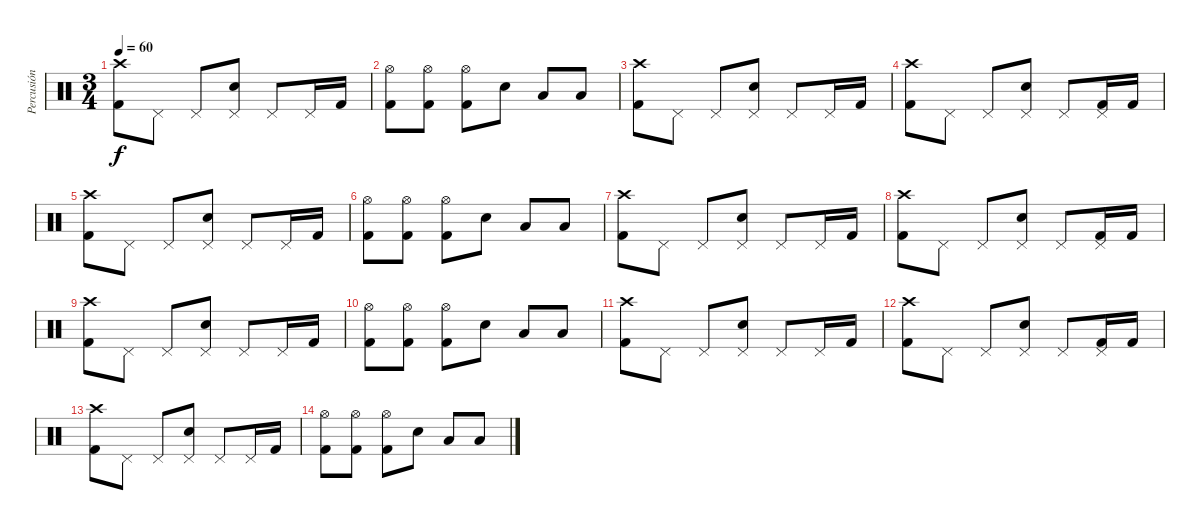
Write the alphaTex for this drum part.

\track ("Percusión" "Percusión") {instrument percussion}
\staff {score}
\articulation defaults
\ts (3 4)
\tempo 60
\clef neutral
\ks c
("Kick (hit) 2" "Crash high (hit)").8{dy f} "Pedal Hi-Hat (hit)".8 "Pedal Hi-Hat (hit)".8 ("Pedal Hi-Hat (hit)" "Snare (hit) 2").8 "Pedal Hi-Hat (hit)".8 "Pedal Hi-Hat (hit)".16 "Kick (hit) 2".16 |
("Hi-Hat (open)" "Kick (hit) 2").8 ("Hi-Hat (open)" "Kick (hit) 2").8 ("Hi-Hat (open)" "Kick (hit) 2").8 "Snare (hit) 2".8 "Low Tom (hit)".8 "Low Tom (hit)".8 |
("Kick (hit) 2" "Crash high (hit)").8 "Pedal Hi-Hat (hit)".8 "Pedal Hi-Hat (hit)".8 ("Pedal Hi-Hat (hit)" "Snare (hit) 2").8 "Pedal Hi-Hat (hit)".8 "Pedal Hi-Hat (hit)".16 "Kick (hit) 2".16 |
("Crash high (hit)" "Kick (hit) 2").8 "Pedal Hi-Hat (hit)".8 "Pedal Hi-Hat (hit)".8 ("Pedal Hi-Hat (hit)" "Snare (hit) 2").8 "Pedal Hi-Hat (hit)".8 ("Pedal Hi-Hat (hit)" "Kick (hit) 2").16 "Kick (hit) 2".16 |
("Kick (hit) 2" "Crash high (hit)").8 "Pedal Hi-Hat (hit)".8 "Pedal Hi-Hat (hit)".8 ("Pedal Hi-Hat (hit)" "Snare (hit) 2").8 "Pedal Hi-Hat (hit)".8 "Pedal Hi-Hat (hit)".16 "Kick (hit) 2".16 |
("Hi-Hat (open)" "Kick (hit) 2").8 ("Hi-Hat (open)" "Kick (hit) 2").8 ("Hi-Hat (open)" "Kick (hit) 2").8 "Snare (hit) 2".8 "Low Tom (hit)".8 "Low Tom (hit)".8 |
("Kick (hit) 2" "Crash high (hit)").8 "Pedal Hi-Hat (hit)".8 "Pedal Hi-Hat (hit)".8 ("Pedal Hi-Hat (hit)" "Snare (hit) 2").8 "Pedal Hi-Hat (hit)".8 "Pedal Hi-Hat (hit)".16 "Kick (hit) 2".16 |
("Crash high (hit)" "Kick (hit) 2").8 "Pedal Hi-Hat (hit)".8 "Pedal Hi-Hat (hit)".8 ("Pedal Hi-Hat (hit)" "Snare (hit) 2").8 "Pedal Hi-Hat (hit)".8 ("Pedal Hi-Hat (hit)" "Kick (hit) 2").16 "Kick (hit) 2".16 |
("Kick (hit) 2" "Crash high (hit)").8 "Pedal Hi-Hat (hit)".8 "Pedal Hi-Hat (hit)".8 ("Pedal Hi-Hat (hit)" "Snare (hit) 2").8 "Pedal Hi-Hat (hit)".8 "Pedal Hi-Hat (hit)".16 "Kick (hit) 2".16 |
("Hi-Hat (open)" "Kick (hit) 2").8 ("Hi-Hat (open)" "Kick (hit) 2").8 ("Hi-Hat (open)" "Kick (hit) 2").8 "Snare (hit) 2".8 "Low Tom (hit)".8 "Low Tom (hit)".8 |
("Kick (hit) 2" "Crash high (hit)").8 "Pedal Hi-Hat (hit)".8 "Pedal Hi-Hat (hit)".8 ("Pedal Hi-Hat (hit)" "Snare (hit) 2").8 "Pedal Hi-Hat (hit)".8 "Pedal Hi-Hat (hit)".16 "Kick (hit) 2".16 |
("Crash high (hit)" "Kick (hit) 2").8 "Pedal Hi-Hat (hit)".8 "Pedal Hi-Hat (hit)".8 ("Pedal Hi-Hat (hit)" "Snare (hit) 2").8 "Pedal Hi-Hat (hit)".8 ("Pedal Hi-Hat (hit)" "Kick (hit) 2").16 "Kick (hit) 2".16 |
("Kick (hit) 2" "Crash high (hit)").8 "Pedal Hi-Hat (hit)".8 "Pedal Hi-Hat (hit)".8 ("Pedal Hi-Hat (hit)" "Snare (hit) 2").8 "Pedal Hi-Hat (hit)".8 "Pedal Hi-Hat (hit)".16 "Kick (hit) 2".16 |
("Hi-Hat (open)" "Kick (hit) 2").8 ("Hi-Hat (open)" "Kick (hit) 2").8 ("Hi-Hat (open)" "Kick (hit) 2").8 "Snare (hit) 2".8 "Low Tom (hit)".8 "Low Tom (hit)".8
